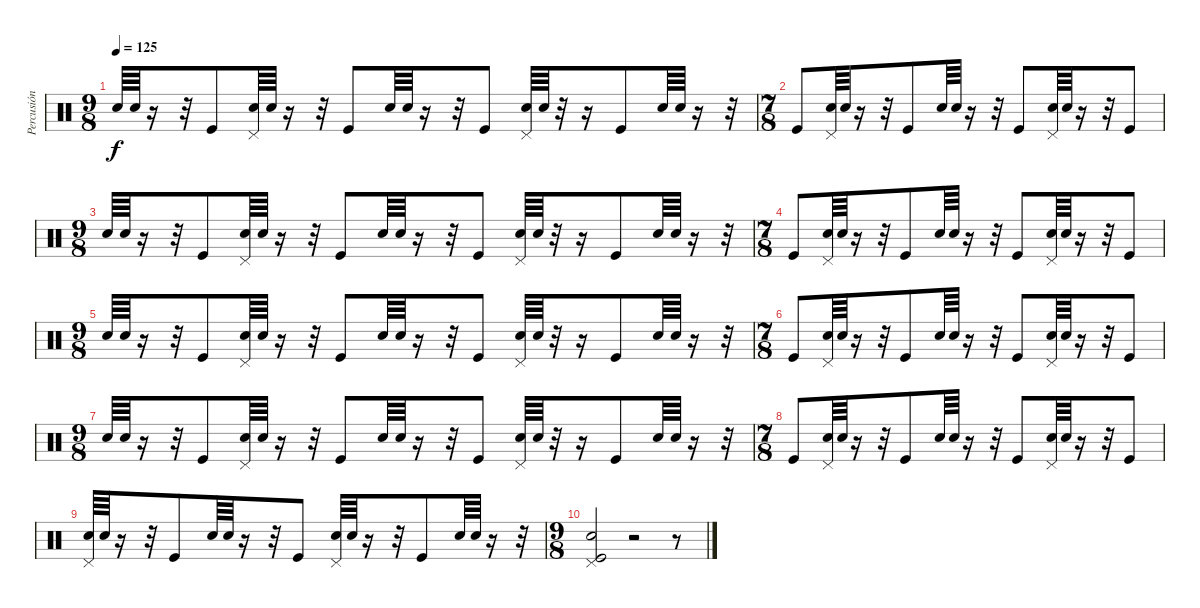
\track ("Percusión" "Percusión") {instrument percussion}
\staff {score}
\articulation defaults
\ts (9 8)
\tempo 125
\clef neutral
\ks c "Electric Snare (hit)".64{dy f} "Electric Snare (hit)".64
r.16 r.32 "Kick (hit)".8 ("Pedal Hi-Hat (hit)" "Electric Snare (hit)").64 "Electric Snare (hit)".64 r.16 r.32 "Kick (hit)".8 "Electric Snare (hit)".64 "Electric Snare (hit)".64 r.16 r.32 "Kick (hit)".8 ("Pedal Hi-Hat (hit)" "Electric Snare (hit)").64 "Electric Snare (hit)".64 r.32 r.16 "Kick (hit)".8 "Electric Snare (hit)".64 "Electric Snare (hit)".64 r.16 r.32 |
\ts (7 8)
"Kick (hit)".8 ("Pedal Hi-Hat (hit)" "Electric Snare (hit)").64 "Electric Snare (hit)".64 r.16 r.32 "Kick (hit)".8 "Electric Snare (hit)".64 "Electric Snare (hit)".64 r.16 r.32 "Kick (hit)".8 ("Pedal Hi-Hat (hit)" "Electric Snare (hit)").64 "Electric Snare (hit)".64 r.16 r.32 "Kick (hit)".8 |
\ts (9 8)
"Electric Snare (hit)".64 "Electric Snare (hit)".64 r.16 r.32 "Kick (hit)".8 ("Pedal Hi-Hat (hit)" "Electric Snare (hit)").64 "Electric Snare (hit)".64 r.16 r.32 "Kick (hit)".8 "Electric Snare (hit)".64 "Electric Snare (hit)".64 r.16 r.32 "Kick (hit)".8 ("Pedal Hi-Hat (hit)" "Electric Snare (hit)").64 "Electric Snare (hit)".64 r.32 r.16 "Kick (hit)".8 "Electric Snare (hit)".64 "Electric Snare (hit)".64 r.16 r.32 |
\ts (7 8)
"Kick (hit)".8 ("Pedal Hi-Hat (hit)" "Electric Snare (hit)").64 "Electric Snare (hit)".64 r.16 r.32 "Kick (hit)".8 "Electric Snare (hit)".64 "Electric Snare (hit)".64 r.16 r.32 "Kick (hit)".8 ("Pedal Hi-Hat (hit)" "Electric Snare (hit)").64 "Electric Snare (hit)".64 r.16 r.32 "Kick (hit)".8 |
\ts (9 8)
"Electric Snare (hit)".64 "Electric Snare (hit)".64 r.16 r.32 "Kick (hit)".8 ("Pedal Hi-Hat (hit)" "Electric Snare (hit)").64 "Electric Snare (hit)".64 r.16 r.32 "Kick (hit)".8 "Electric Snare (hit)".64 "Electric Snare (hit)".64 r.16 r.32 "Kick (hit)".8 ("Pedal Hi-Hat (hit)" "Electric Snare (hit)").64 "Electric Snare (hit)".64 r.32 r.16 "Kick (hit)".8 "Electric Snare (hit)".64 "Electric Snare (hit)".64 r.16 r.32 |
\ts (7 8)
"Kick (hit)".8 ("Pedal Hi-Hat (hit)" "Electric Snare (hit)").64 "Electric Snare (hit)".64 r.16 r.32 "Kick (hit)".8 "Electric Snare (hit)".64 "Electric Snare (hit)".64 r.16 r.32 "Kick (hit)".8 ("Pedal Hi-Hat (hit)" "Electric Snare (hit)").64 "Electric Snare (hit)".64 r.16 r.32 "Kick (hit)".8 |
\ts (9 8)
"Electric Snare (hit)".64 "Electric Snare (hit)".64 r.16 r.32 "Kick (hit)".8 ("Pedal Hi-Hat (hit)" "Electric Snare (hit)").64 "Electric Snare (hit)".64 r.16 r.32 "Kick (hit)".8 "Electric Snare (hit)".64 "Electric Snare (hit)".64 r.16 r.32 "Kick (hit)".8 ("Pedal Hi-Hat (hit)" "Electric Snare (hit)").64 "Electric Snare (hit)".64 r.32 r.16 "Kick (hit)".8 "Electric Snare (hit)".64 "Electric Snare (hit)".64 r.16 r.32 |
\ts (7 8)
"Kick (hit)".8 ("Pedal Hi-Hat (hit)" "Electric Snare (hit)").64 "Electric Snare (hit)".64 r.16 r.32 "Kick (hit)".8 "Electric Snare (hit)".64 "Electric Snare (hit)".64 r.16 r.32 "Kick (hit)".8 ("Pedal Hi-Hat (hit)" "Electric Snare (hit)").64 "Electric Snare (hit)".64 r.16 r.32 "Kick (hit)".8 |
("Pedal Hi-Hat (hit)" "Electric Snare (hit)").64 "Electric Snare (hit)".64 r.16 r.32 "Kick (hit)".8 "Electric Snare (hit)".64 "Electric Snare (hit)".64 r.16 r.32 "Kick (hit)".8 ("Pedal Hi-Hat (hit)" "Electric Snare (hit)").64 "Electric Snare (hit)".64 r.16 r.32 "Kick (hit)".8 "Electric Snare (hit)".64 "Electric Snare (hit)".64 r.16 r.32 |
\ts (9 8)
("Pedal Hi-Hat (hit)" "Electric Snare (hit)" "Kick (hit)").2 r.2 r.8
